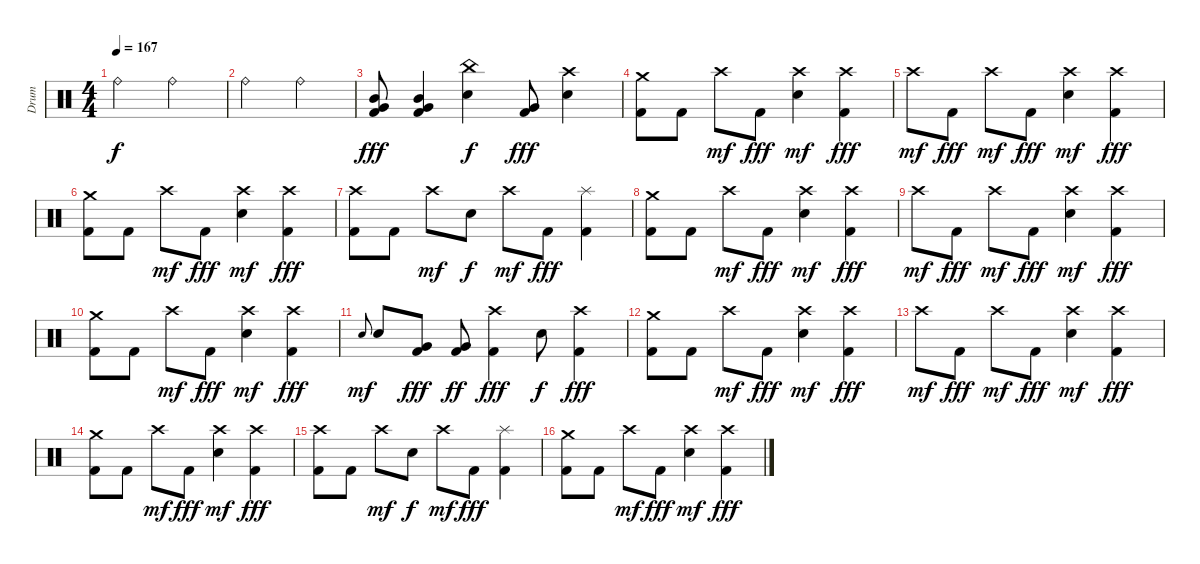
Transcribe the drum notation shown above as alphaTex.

\track ("Drum" "Drum") {instrument percussion}
\staff {score}
\articulation defaults
\ts (4 4)
\tempo 167
\clef neutral
\ks c "Ride (bell)".2{dy f} "Ride (bell)".2
|
"Ride (bell)".2 "Ride (bell)".2 |
("Mid Tom (hit)" "Very Low Tom (hit)" "Kick (hit) 2").8{dy fff} ("Mid Tom (hit)" "Very Low Tom (hit)" "Kick (hit) 2").4 ("China (hit)" "Electric Snare (hit)").4{dy f} ("Very Low Tom (hit)" "Kick (hit) 2").8{dy fff} ("Crash high (hit)" "Electric Snare (hit)").4 |
("Crash medium (hit)" "Kick (hit) 2").8 "Kick (hit) 2".8 "Crash high (hit)".8{dy mf} "Kick (hit) 2".8{dy fff} ("Crash high (hit)" "Electric Snare (hit)").4{dy mf} ("Crash high (hit)" "Kick (hit) 2").4{dy fff} |
"Crash high (hit)".8{dy mf} "Kick (hit) 2".8{dy fff} "Crash high (hit)".8{dy mf} "Kick (hit) 2".8{dy fff} ("Crash high (hit)" "Electric Snare (hit)").4{dy mf} ("Crash high (hit)" "Kick (hit) 2").4{dy fff} |
("Crash medium (hit)" "Kick (hit) 2").8 "Kick (hit) 2".8 "Crash high (hit)".8{dy mf} "Kick (hit) 2".8{dy fff} ("Crash high (hit)" "Electric Snare (hit)").4{dy mf} ("Crash high (hit)" "Kick (hit) 2").4{dy fff} |
("Crash high (hit)" "Kick (hit) 2").8 "Kick (hit) 2".8 "Crash high (hit)".8{dy mf} "Electric Snare (hit)".8{dy f} "Crash high (hit)".8{dy mf} "Kick (hit) 2".8{dy fff} ("Splash (hit)" "Kick (hit) 2").4 |
("Crash medium (hit)" "Kick (hit) 2").8 "Kick (hit) 2".8 "Crash high (hit)".8{dy mf} "Kick (hit) 2".8{dy fff} ("Crash high (hit)" "Electric Snare (hit)").4{dy mf} ("Crash high (hit)" "Kick (hit) 2").4{dy fff} |
"Crash high (hit)".8{dy mf} "Kick (hit) 2".8{dy fff} "Crash high (hit)".8{dy mf} "Kick (hit) 2".8{dy fff} ("Crash high (hit)" "Electric Snare (hit)").4{dy mf} ("Crash high (hit)" "Kick (hit) 2").4{dy fff} |
("Crash medium (hit)" "Kick (hit) 2").8 "Kick (hit) 2".8 "Crash high (hit)".8{dy mf} "Kick (hit) 2".8{dy fff} ("Crash high (hit)" "Electric Snare (hit)").4{dy mf} ("Crash high (hit)" "Kick (hit) 2").4{dy fff} |
"Electric Snare (hit)".8{gr onbeat dy mf} "Electric Snare (hit)".8 ("Very Low Tom (hit)" "Kick (hit) 2").8{dy fff} ("Very Low Tom (hit)" "Kick (hit) 2").8{dy ff} ("Crash high (hit)" "Kick (hit) 2").4{dy fff} "Electric Snare (hit)".8{dy f} ("Crash high (hit)" "Kick (hit) 2").4{dy fff} |
("Crash medium (hit)" "Kick (hit) 2").8 "Kick (hit) 2".8 "Crash high (hit)".8{dy mf} "Kick (hit) 2".8{dy fff} ("Crash high (hit)" "Electric Snare (hit)").4{dy mf} ("Crash high (hit)" "Kick (hit) 2").4{dy fff} |
"Crash high (hit)".8{dy mf} "Kick (hit) 2".8{dy fff} "Crash high (hit)".8{dy mf} "Kick (hit) 2".8{dy fff} ("Crash high (hit)" "Electric Snare (hit)").4{dy mf} ("Crash high (hit)" "Kick (hit) 2").4{dy fff} |
("Crash medium (hit)" "Kick (hit) 2").8 "Kick (hit) 2".8 "Crash high (hit)".8{dy mf} "Kick (hit) 2".8{dy fff} ("Crash high (hit)" "Electric Snare (hit)").4{dy mf} ("Crash high (hit)" "Kick (hit) 2").4{dy fff} |
("Crash high (hit)" "Kick (hit) 2").8 "Kick (hit) 2".8 "Crash high (hit)".8{dy mf} "Electric Snare (hit)".8{dy f} "Crash high (hit)".8{dy mf} "Kick (hit) 2".8{dy fff} ("Splash (hit)" "Kick (hit) 2").4 |
("Crash medium (hit)" "Kick (hit) 2").8 "Kick (hit) 2".8 "Crash high (hit)".8{dy mf} "Kick (hit) 2".8{dy fff} ("Crash high (hit)" "Electric Snare (hit)").4{dy mf} ("Crash high (hit)" "Kick (hit) 2").4{dy fff}
